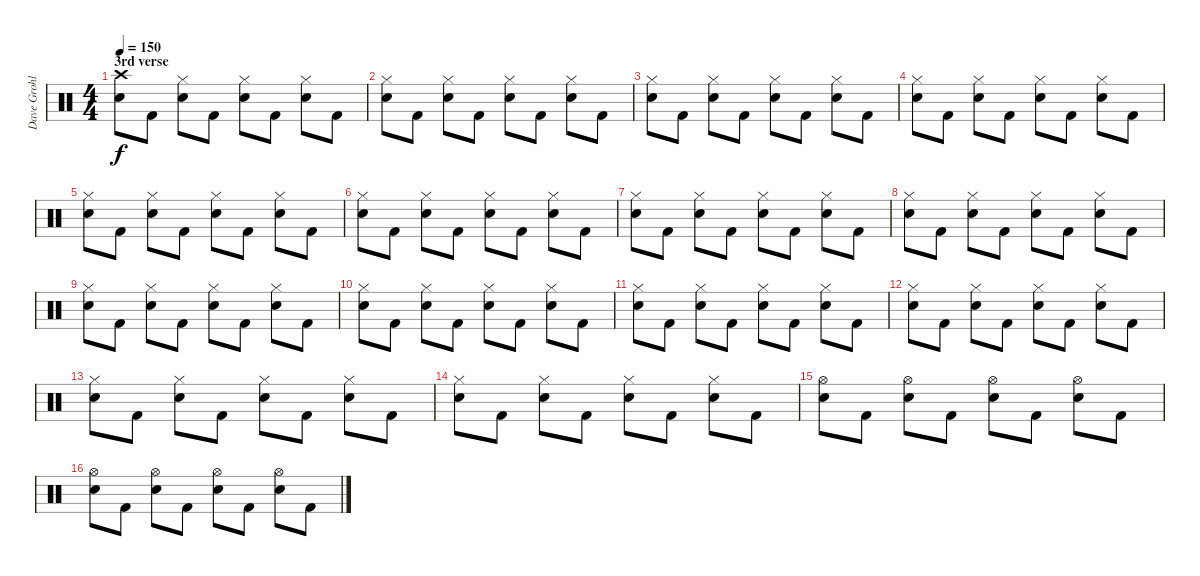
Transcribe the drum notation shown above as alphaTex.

\track ("Dave Grohl" "Dave Grohl") {instrument percussion}
\staff {score}
\articulation defaults
\ts (4 4)
\section ("" "3rd verse")
\tempo 150
\clef neutral
\ks c
("Crash high (hit)" "Electric Snare (hit)").8{dy f} "Kick (hit) 2".8 ("Hi-Hat (closed)" "Electric Snare (hit)").8 "Kick (hit) 2".8 ("Hi-Hat (closed)" "Electric Snare (hit)").8 "Kick (hit) 2".8 ("Hi-Hat (closed)" "Electric Snare (hit)").8 "Kick (hit) 2".8 |
("Hi-Hat (closed)" "Electric Snare (hit)").8 "Kick (hit) 2".8 ("Hi-Hat (closed)" "Electric Snare (hit)").8 "Kick (hit) 2".8 ("Hi-Hat (closed)" "Electric Snare (hit)").8 "Kick (hit) 2".8 ("Hi-Hat (closed)" "Electric Snare (hit)").8 "Kick (hit) 2".8 |
("Hi-Hat (closed)" "Electric Snare (hit)").8 "Kick (hit) 2".8 ("Hi-Hat (closed)" "Electric Snare (hit)").8 "Kick (hit) 2".8 ("Hi-Hat (closed)" "Electric Snare (hit)").8 "Kick (hit) 2".8 ("Hi-Hat (closed)" "Electric Snare (hit)").8 "Kick (hit) 2".8 |
("Hi-Hat (closed)" "Electric Snare (hit)").8 "Kick (hit) 2".8 ("Hi-Hat (closed)" "Electric Snare (hit)").8 "Kick (hit) 2".8 ("Hi-Hat (closed)" "Electric Snare (hit)").8 "Kick (hit) 2".8 ("Hi-Hat (closed)" "Electric Snare (hit)").8 "Kick (hit) 2".8 |
("Hi-Hat (closed)" "Electric Snare (hit)").8 "Kick (hit) 2".8 ("Hi-Hat (closed)" "Electric Snare (hit)").8 "Kick (hit) 2".8 ("Hi-Hat (closed)" "Electric Snare (hit)").8 "Kick (hit) 2".8 ("Hi-Hat (closed)" "Electric Snare (hit)").8 "Kick (hit) 2".8 |
("Hi-Hat (closed)" "Electric Snare (hit)").8 "Kick (hit) 2".8 ("Hi-Hat (closed)" "Electric Snare (hit)").8 "Kick (hit) 2".8 ("Hi-Hat (closed)" "Electric Snare (hit)").8 "Kick (hit) 2".8 ("Hi-Hat (closed)" "Electric Snare (hit)").8 "Kick (hit) 2".8 |
("Hi-Hat (closed)" "Electric Snare (hit)").8 "Kick (hit) 2".8 ("Hi-Hat (closed)" "Electric Snare (hit)").8 "Kick (hit) 2".8 ("Hi-Hat (closed)" "Electric Snare (hit)").8 "Kick (hit) 2".8 ("Hi-Hat (closed)" "Electric Snare (hit)").8 "Kick (hit) 2".8 |
("Hi-Hat (closed)" "Electric Snare (hit)").8 "Kick (hit) 2".8 ("Hi-Hat (closed)" "Electric Snare (hit)").8 "Kick (hit) 2".8 ("Hi-Hat (closed)" "Electric Snare (hit)").8 "Kick (hit) 2".8 ("Hi-Hat (closed)" "Electric Snare (hit)").8 "Kick (hit) 2".8 |
("Hi-Hat (closed)" "Electric Snare (hit)").8 "Kick (hit) 2".8 ("Hi-Hat (closed)" "Electric Snare (hit)").8 "Kick (hit) 2".8 ("Hi-Hat (closed)" "Electric Snare (hit)").8 "Kick (hit) 2".8 ("Hi-Hat (closed)" "Electric Snare (hit)").8 "Kick (hit) 2".8 |
("Hi-Hat (closed)" "Electric Snare (hit)").8 "Kick (hit) 2".8 ("Hi-Hat (closed)" "Electric Snare (hit)").8 "Kick (hit) 2".8 ("Hi-Hat (closed)" "Electric Snare (hit)").8 "Kick (hit) 2".8 ("Hi-Hat (closed)" "Electric Snare (hit)").8 "Kick (hit) 2".8 |
("Hi-Hat (closed)" "Electric Snare (hit)").8 "Kick (hit) 2".8 ("Hi-Hat (closed)" "Electric Snare (hit)").8 "Kick (hit) 2".8 ("Hi-Hat (closed)" "Electric Snare (hit)").8 "Kick (hit) 2".8 ("Hi-Hat (closed)" "Electric Snare (hit)").8 "Kick (hit) 2".8 |
("Hi-Hat (closed)" "Electric Snare (hit)").8 "Kick (hit) 2".8 ("Hi-Hat (closed)" "Electric Snare (hit)").8 "Kick (hit) 2".8 ("Hi-Hat (closed)" "Electric Snare (hit)").8 "Kick (hit) 2".8 ("Hi-Hat (closed)" "Electric Snare (hit)").8 "Kick (hit) 2".8 |
("Hi-Hat (closed)" "Electric Snare (hit)").8 "Kick (hit) 2".8 ("Hi-Hat (closed)" "Electric Snare (hit)").8 "Kick (hit) 2".8 ("Hi-Hat (closed)" "Electric Snare (hit)").8 "Kick (hit) 2".8 ("Hi-Hat (closed)" "Electric Snare (hit)").8 "Kick (hit) 2".8 |
("Hi-Hat (closed)" "Electric Snare (hit)").8 "Kick (hit) 2".8 ("Hi-Hat (closed)" "Electric Snare (hit)").8 "Kick (hit) 2".8 ("Hi-Hat (closed)" "Electric Snare (hit)").8 "Kick (hit) 2".8 ("Hi-Hat (closed)" "Electric Snare (hit)").8 "Kick (hit) 2".8 |
("Hi-Hat (open)" "Electric Snare (hit)").8 "Kick (hit) 2".8 ("Hi-Hat (open)" "Electric Snare (hit)").8 "Kick (hit) 2".8 ("Hi-Hat (open)" "Electric Snare (hit)").8 "Kick (hit) 2".8 ("Hi-Hat (open)" "Electric Snare (hit)").8 "Kick (hit) 2".8 |
("Hi-Hat (open)" "Electric Snare (hit)").8 "Kick (hit) 2".8 ("Hi-Hat (open)" "Electric Snare (hit)").8 "Kick (hit) 2".8 ("Hi-Hat (open)" "Electric Snare (hit)").8 "Kick (hit) 2".8 ("Hi-Hat (open)" "Electric Snare (hit)").8 "Kick (hit) 2".8
